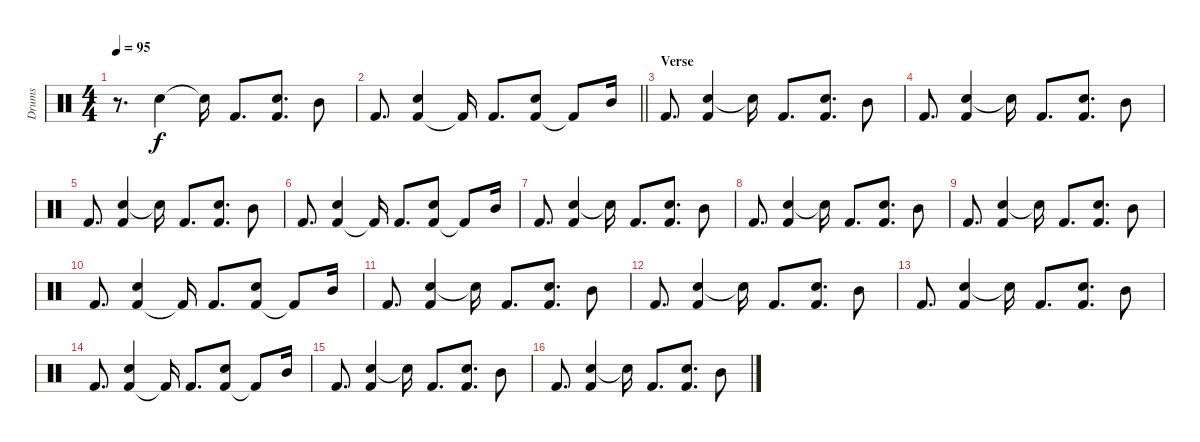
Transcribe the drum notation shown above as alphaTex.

\track ("Drums" "Drums") {instrument percussion}
\staff {score}
\articulation defaults
\ts (4 4)
\tempo 95
\clef neutral
\ks c
r.8{d dy f} "Hand Clap (hit)".4 "Hand Clap (hit)"{t}.16 "Kick (hit) 2".8{d} ("Kick (hit) 2" "Hand Clap (hit)").8{d} "Mid Tom (hit)".8 |
\barLineRight lightlight "Kick (hit) 2".8{d}
("Kick (hit) 2" "Hand Clap (hit)").4 "Kick (hit) 2"{t}.16 "Kick (hit) 2".8{d} ("Kick (hit) 2" "Hand Clap (hit)").8 "Kick (hit) 2"{t}.8 "Mid Tom (hit)".16 |
\section ("" "Verse")
"Kick (hit) 2".8{d} ("Hand Clap (hit)" "Kick (hit) 2").4 "Hand Clap (hit)"{t}.16 "Kick (hit) 2".8{d} ("Kick (hit) 2" "Hand Clap (hit)").8{d} "Mid Tom (hit)".8 |
"Kick (hit) 2".8{d} ("Hand Clap (hit)" "Kick (hit) 2").4 "Hand Clap (hit)"{t}.16 "Kick (hit) 2".8{d} ("Kick (hit) 2" "Hand Clap (hit)").8{d} "Mid Tom (hit)".8 |
"Kick (hit) 2".8{d} ("Hand Clap (hit)" "Kick (hit) 2").4 "Hand Clap (hit)"{t}.16 "Kick (hit) 2".8{d} ("Kick (hit) 2" "Hand Clap (hit)").8{d} "Mid Tom (hit)".8 |
"Kick (hit) 2".8{d} ("Kick (hit) 2" "Hand Clap (hit)").4 "Kick (hit) 2"{t}.16 "Kick (hit) 2".8{d} ("Kick (hit) 2" "Hand Clap (hit)").8 "Kick (hit) 2"{t}.8 "Mid Tom (hit)".16 |
"Kick (hit) 2".8{d} ("Hand Clap (hit)" "Kick (hit) 2").4 "Hand Clap (hit)"{t}.16 "Kick (hit) 2".8{d} ("Kick (hit) 2" "Hand Clap (hit)").8{d} "Mid Tom (hit)".8 |
"Kick (hit) 2".8{d} ("Hand Clap (hit)" "Kick (hit) 2").4 "Hand Clap (hit)"{t}.16 "Kick (hit) 2".8{d} ("Kick (hit) 2" "Hand Clap (hit)").8{d} "Mid Tom (hit)".8 |
"Kick (hit) 2".8{d} ("Hand Clap (hit)" "Kick (hit) 2").4 "Hand Clap (hit)"{t}.16 "Kick (hit) 2".8{d} ("Kick (hit) 2" "Hand Clap (hit)").8{d} "Mid Tom (hit)".8 |
"Kick (hit) 2".8{d} ("Kick (hit) 2" "Hand Clap (hit)").4 "Kick (hit) 2"{t}.16 "Kick (hit) 2".8{d} ("Kick (hit) 2" "Hand Clap (hit)").8 "Kick (hit) 2"{t}.8 "Mid Tom (hit)".16 |
"Kick (hit) 2".8{d} ("Hand Clap (hit)" "Kick (hit) 2").4 "Hand Clap (hit)"{t}.16 "Kick (hit) 2".8{d} ("Kick (hit) 2" "Hand Clap (hit)").8{d} "Mid Tom (hit)".8 |
"Kick (hit) 2".8{d} ("Hand Clap (hit)" "Kick (hit) 2").4 "Hand Clap (hit)"{t}.16 "Kick (hit) 2".8{d} ("Kick (hit) 2" "Hand Clap (hit)").8{d} "Mid Tom (hit)".8 |
"Kick (hit) 2".8{d} ("Hand Clap (hit)" "Kick (hit) 2").4 "Hand Clap (hit)"{t}.16 "Kick (hit) 2".8{d} ("Kick (hit) 2" "Hand Clap (hit)").8{d} "Mid Tom (hit)".8 |
"Kick (hit) 2".8{d} ("Kick (hit) 2" "Hand Clap (hit)").4 "Kick (hit) 2"{t}.16 "Kick (hit) 2".8{d} ("Kick (hit) 2" "Hand Clap (hit)").8 "Kick (hit) 2"{t}.8 "Mid Tom (hit)".16 |
"Kick (hit) 2".8{d} ("Hand Clap (hit)" "Kick (hit) 2").4 "Hand Clap (hit)"{t}.16 "Kick (hit) 2".8{d} ("Kick (hit) 2" "Hand Clap (hit)").8{d} "Mid Tom (hit)".8 |
"Kick (hit) 2".8{d} ("Hand Clap (hit)" "Kick (hit) 2").4 "Hand Clap (hit)"{t}.16 "Kick (hit) 2".8{d} ("Kick (hit) 2" "Hand Clap (hit)").8{d} "Mid Tom (hit)".8
